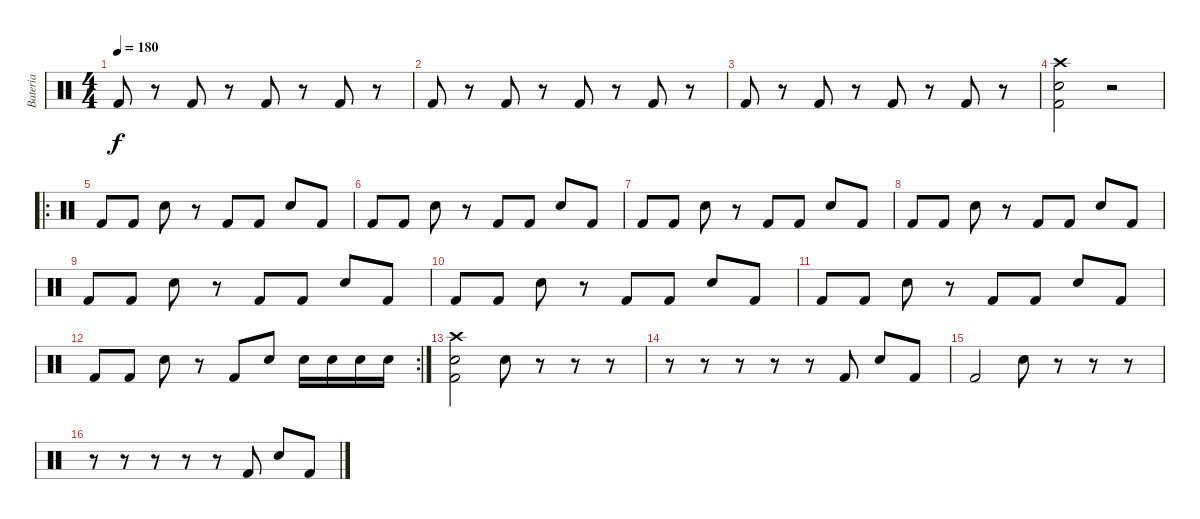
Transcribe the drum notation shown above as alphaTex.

\track ("Bateria" "Bateria") {instrument percussion}
\staff {score}
\articulation defaults
\ts (4 4)
\tempo 180
\clef neutral
\ks c "Kick (hit) 2".8{dy f}
r.8 "Kick (hit) 2".8 r.8 "Kick (hit) 2".8 r.8 "Kick (hit) 2".8 r.8 |
"Kick (hit) 2".8 r.8 "Kick (hit) 2".8 r.8 "Kick (hit) 2".8 r.8 "Kick (hit) 2".8 r.8 |
"Kick (hit) 2".8 r.8 "Kick (hit) 2".8 r.8 "Kick (hit) 2".8 r.8 "Kick (hit) 2".8 r.8 |
("Kick (hit) 2" "Electric Snare (hit)" "Crash high (hit)").2 r.2 |
\ro "Kick (hit) 2".8 "Kick (hit) 2".8 "Electric Snare (hit)".8
r.8 "Kick (hit) 2".8 "Kick (hit) 2".8 "Electric Snare (hit)".8 "Kick (hit) 2".8 |
"Kick (hit) 2".8 "Kick (hit) 2".8 "Electric Snare (hit)".8 r.8 "Kick (hit) 2".8 "Kick (hit) 2".8 "Electric Snare (hit)".8 "Kick (hit) 2".8 |
"Kick (hit) 2".8 "Kick (hit) 2".8 "Electric Snare (hit)".8 r.8 "Kick (hit) 2".8 "Kick (hit) 2".8 "Electric Snare (hit)".8 "Kick (hit) 2".8 |
"Kick (hit) 2".8 "Kick (hit) 2".8 "Electric Snare (hit)".8 r.8 "Kick (hit) 2".8 "Kick (hit) 2".8 "Electric Snare (hit)".8 "Kick (hit) 2".8 |
"Kick (hit) 2".8 "Kick (hit) 2".8 "Electric Snare (hit)".8 r.8 "Kick (hit) 2".8 "Kick (hit) 2".8 "Electric Snare (hit)".8 "Kick (hit) 2".8 |
"Kick (hit) 2".8 "Kick (hit) 2".8 "Electric Snare (hit)".8 r.8 "Kick (hit) 2".8 "Kick (hit) 2".8 "Electric Snare (hit)".8 "Kick (hit) 2".8 |
"Kick (hit) 2".8 "Kick (hit) 2".8 "Electric Snare (hit)".8 r.8 "Kick (hit) 2".8 "Kick (hit) 2".8 "Electric Snare (hit)".8 "Kick (hit) 2".8 |
\rc 2 "Kick (hit) 2".8 "Kick (hit) 2".8 "Electric Snare (hit)".8
r.8 "Kick (hit) 2".8 "Electric Snare (hit)".8 "Electric Snare (hit)".16 "Electric Snare (hit)".16 "Electric Snare (hit)".16 "Electric Snare (hit)".16 |
("Kick (hit) 2" "Electric Snare (hit)" "Crash high (hit)").2 "Electric Snare (hit)".8 r.8 r.8 r.8 |
r.8 r.8 r.8 r.8 r.8 "Kick (hit) 2".8 "Electric Snare (hit)".8 "Kick (hit) 2".8 |
"Kick (hit) 2".2 "Electric Snare (hit)".8 r.8 r.8 r.8 |
r.8 r.8 r.8 r.8 r.8 "Kick (hit) 2".8 "Electric Snare (hit)".8 "Kick (hit) 2".8
